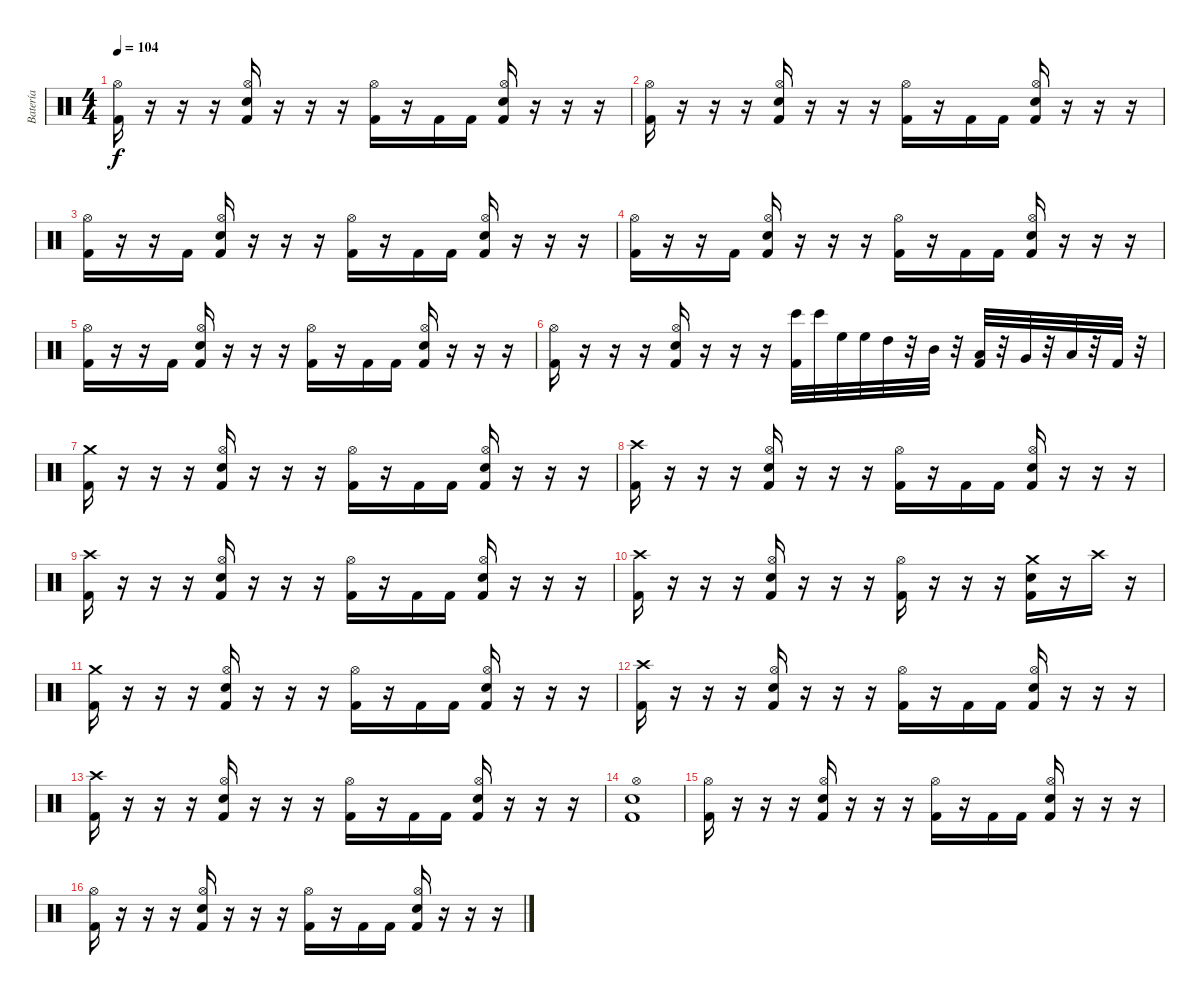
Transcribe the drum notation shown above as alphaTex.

\track ("Batería" "Batería") {instrument percussion}
\staff {score}
\articulation defaults
\ts (4 4)
\tempo 104
\clef neutral
\ks c
("Kick (hit) 2" "Hi-Hat (open)").16{dy f} r.16 r.16 r.16 ("Kick (hit) 2" "Snare (hit) 2" "Hi-Hat (open)").16 r.16 r.16 r.16 ("Kick (hit) 2" "Hi-Hat (open)").16 r.16 "Kick (hit) 2".16 "Kick (hit) 2".16 ("Kick (hit) 2" "Snare (hit) 2" "Hi-Hat (open)").16 r.16 r.16 r.16 |
("Kick (hit) 2" "Hi-Hat (open)").16 r.16 r.16 r.16 ("Kick (hit) 2" "Snare (hit) 2" "Hi-Hat (open)").16 r.16 r.16 r.16 ("Kick (hit) 2" "Hi-Hat (open)").16 r.16 "Kick (hit) 2".16 "Kick (hit) 2".16 ("Kick (hit) 2" "Snare (hit) 2" "Hi-Hat (open)").16 r.16 r.16 r.16 |
("Kick (hit) 2" "Hi-Hat (open)").16 r.16 r.16 "Kick (hit) 2".16 ("Kick (hit) 2" "Snare (hit) 2" "Hi-Hat (open)").16 r.16 r.16 r.16 ("Kick (hit) 2" "Hi-Hat (open)").16 r.16 "Kick (hit) 2".16 "Kick (hit) 2".16 ("Kick (hit) 2" "Snare (hit) 2" "Hi-Hat (open)").16 r.16 r.16 r.16 |
("Kick (hit) 2" "Hi-Hat (open)").16 r.16 r.16 "Kick (hit) 2".16 ("Kick (hit) 2" "Snare (hit) 2" "Hi-Hat (open)").16 r.16 r.16 r.16 ("Kick (hit) 2" "Hi-Hat (open)").16 r.16 "Kick (hit) 2".16 "Kick (hit) 2".16 ("Kick (hit) 2" "Snare (hit) 2" "Hi-Hat (open)").16 r.16 r.16 r.16 |
("Kick (hit) 2" "Hi-Hat (open)").16 r.16 r.16 "Kick (hit) 2".16 ("Kick (hit) 2" "Snare (hit) 2" "Hi-Hat (open)").16 r.16 r.16 r.16 ("Kick (hit) 2" "Hi-Hat (open)").16 r.16 "Kick (hit) 2".16 "Kick (hit) 2".16 ("Kick (hit) 2" "Snare (hit) 2" "Hi-Hat (open)").16 r.16 r.16 r.16 |
("Kick (hit) 2" "Hi-Hat (open)").16 r.16 r.16 r.16 ("Kick (hit) 2" "Snare (hit) 2" "Hi-Hat (open)").16 r.16 r.16 r.16 ("Kick (hit) 2" "Bongo High (hit)").32 "Bongo High (hit)".32 "High Floor Tom (hit)".32 "High Floor Tom (hit)".32 "High Tom (hit)".32 r.32 "Mid Tom (hit)".32 r.32 ("Kick (hit) 2" "Low Tom (hit)").32 r.32 "Very Low Tom (hit)".32 r.32 "Low Floor Tom (hit)".32 r.32 "Kick (hit) 2".32 r.32 |
("Kick (hit) 2" "Crash medium (hit)").16 r.16 r.16 r.16 ("Kick (hit) 2" "Snare (hit) 2" "Hi-Hat (open)").16 r.16 r.16 r.16 ("Kick (hit) 2" "Hi-Hat (open)").16 r.16 "Kick (hit) 2".16 "Kick (hit) 2".16 ("Kick (hit) 2" "Snare (hit) 2" "Hi-Hat (open)").16 r.16 r.16 r.16 |
("Kick (hit) 2" "Crash high (hit)").16 r.16 r.16 r.16 ("Kick (hit) 2" "Snare (hit) 2" "Hi-Hat (open)").16 r.16 r.16 r.16 ("Kick (hit) 2" "Hi-Hat (open)").16 r.16 "Kick (hit) 2".16 "Kick (hit) 2".16 ("Kick (hit) 2" "Snare (hit) 2" "Hi-Hat (open)").16 r.16 r.16 r.16 |
("Kick (hit) 2" "Crash high (hit)").16 r.16 r.16 r.16 ("Kick (hit) 2" "Snare (hit) 2" "Hi-Hat (open)").16 r.16 r.16 r.16 ("Kick (hit) 2" "Hi-Hat (open)").16 r.16 "Kick (hit) 2".16 "Kick (hit) 2".16 ("Kick (hit) 2" "Snare (hit) 2" "Hi-Hat (open)").16 r.16 r.16 r.16 |
("Kick (hit) 2" "Crash high (hit)").16 r.16 r.16 r.16 ("Kick (hit) 2" "Snare (hit) 2" "Hi-Hat (open)").16 r.16 r.16 r.16 ("Kick (hit) 2" "Hi-Hat (open)").16 r.16 r.16 r.16 ("Kick (hit) 2" "Snare (hit) 2" "Crash medium (hit)").16 r.16 "Crash high (hit)".16 r.16 |
("Kick (hit) 2" "Crash medium (hit)").16 r.16 r.16 r.16 ("Kick (hit) 2" "Snare (hit) 2" "Hi-Hat (open)").16 r.16 r.16 r.16 ("Kick (hit) 2" "Hi-Hat (open)").16 r.16 "Kick (hit) 2".16 "Kick (hit) 2".16 ("Kick (hit) 2" "Snare (hit) 2" "Hi-Hat (open)").16 r.16 r.16 r.16 |
("Kick (hit) 2" "Crash high (hit)").16 r.16 r.16 r.16 ("Kick (hit) 2" "Snare (hit) 2" "Hi-Hat (open)").16 r.16 r.16 r.16 ("Kick (hit) 2" "Hi-Hat (open)").16 r.16 "Kick (hit) 2".16 "Kick (hit) 2".16 ("Kick (hit) 2" "Snare (hit) 2" "Hi-Hat (open)").16 r.16 r.16 r.16 |
("Kick (hit) 2" "Crash high (hit)").16 r.16 r.16 r.16 ("Kick (hit) 2" "Snare (hit) 2" "Hi-Hat (open)").16 r.16 r.16 r.16 ("Kick (hit) 2" "Hi-Hat (open)").16 r.16 "Kick (hit) 2".16 "Kick (hit) 2".16 ("Kick (hit) 2" "Snare (hit) 2" "Hi-Hat (open)").16 r.16 r.16 r.16 |
("Kick (hit) 2" "Snare (hit) 2" "Hi-Hat (open)").1 |
("Kick (hit) 2" "Hi-Hat (open)").16 r.16 r.16 r.16 ("Kick (hit) 2" "Snare (hit) 2" "Hi-Hat (open)").16 r.16 r.16 r.16 ("Kick (hit) 2" "Hi-Hat (open)").16 r.16 "Kick (hit) 2".16 "Kick (hit) 2".16 ("Kick (hit) 2" "Snare (hit) 2" "Hi-Hat (open)").16 r.16 r.16 r.16 |
("Kick (hit) 2" "Hi-Hat (open)").16 r.16 r.16 r.16 ("Kick (hit) 2" "Snare (hit) 2" "Hi-Hat (open)").16 r.16 r.16 r.16 ("Kick (hit) 2" "Hi-Hat (open)").16 r.16 "Kick (hit) 2".16 "Kick (hit) 2".16 ("Kick (hit) 2" "Snare (hit) 2" "Hi-Hat (open)").16 r.16 r.16 r.16
